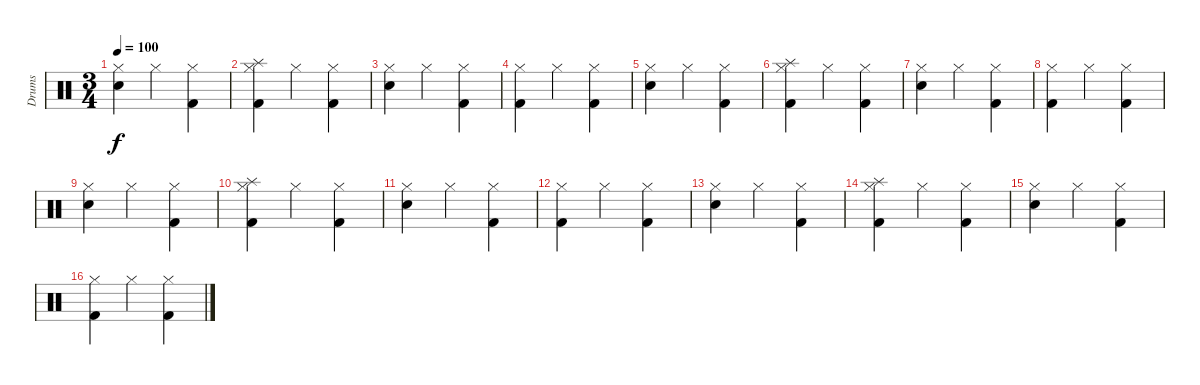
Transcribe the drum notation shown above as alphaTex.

\track ("Drums" "Drums") {instrument percussion}
\staff {score}
\articulation defaults
\ts (3 4)
\tempo 100
\clef neutral
\ks c
("Hi-Hat (closed)" "Electric Snare (hit)").4{dy f} "Hi-Hat (closed)".4 ("Hi-Hat (closed)" "Kick (hit) 2").4 |
("Hi-Hat (closed)" "Splash (hit)" "Kick (hit) 2").4 "Hi-Hat (closed)".4 ("Hi-Hat (closed)" "Kick (hit) 2").4 |
("Hi-Hat (closed)" "Electric Snare (hit)").4 "Hi-Hat (closed)".4 ("Hi-Hat (closed)" "Kick (hit) 2").4 |
("Hi-Hat (closed)" "Kick (hit) 2").4 "Hi-Hat (closed)".4 ("Hi-Hat (closed)" "Kick (hit) 2").4 |
("Hi-Hat (closed)" "Electric Snare (hit)").4 "Hi-Hat (closed)".4 ("Hi-Hat (closed)" "Kick (hit) 2").4 |
("Hi-Hat (closed)" "Splash (hit)" "Kick (hit) 2").4 "Hi-Hat (closed)".4 ("Hi-Hat (closed)" "Kick (hit) 2").4 |
("Hi-Hat (closed)" "Electric Snare (hit)").4 "Hi-Hat (closed)".4 ("Hi-Hat (closed)" "Kick (hit) 2").4 |
("Hi-Hat (closed)" "Kick (hit) 2").4 "Hi-Hat (closed)".4 ("Hi-Hat (closed)" "Kick (hit) 2").4 |
("Hi-Hat (closed)" "Electric Snare (hit)").4 "Hi-Hat (closed)".4 ("Hi-Hat (closed)" "Kick (hit) 2").4 |
("Hi-Hat (closed)" "Splash (hit)" "Kick (hit) 2").4 "Hi-Hat (closed)".4 ("Hi-Hat (closed)" "Kick (hit) 2").4 |
("Hi-Hat (closed)" "Electric Snare (hit)").4 "Hi-Hat (closed)".4 ("Hi-Hat (closed)" "Kick (hit) 2").4 |
("Hi-Hat (closed)" "Kick (hit) 2").4 "Hi-Hat (closed)".4 ("Hi-Hat (closed)" "Kick (hit) 2").4 |
("Hi-Hat (closed)" "Electric Snare (hit)").4 "Hi-Hat (closed)".4 ("Hi-Hat (closed)" "Kick (hit) 2").4 |
("Hi-Hat (closed)" "Splash (hit)" "Kick (hit) 2").4 "Hi-Hat (closed)".4 ("Hi-Hat (closed)" "Kick (hit) 2").4 |
("Hi-Hat (closed)" "Electric Snare (hit)").4 "Hi-Hat (closed)".4 ("Hi-Hat (closed)" "Kick (hit) 2").4 |
("Hi-Hat (closed)" "Kick (hit) 2").4 "Hi-Hat (closed)".4 ("Hi-Hat (closed)" "Kick (hit) 2").4
